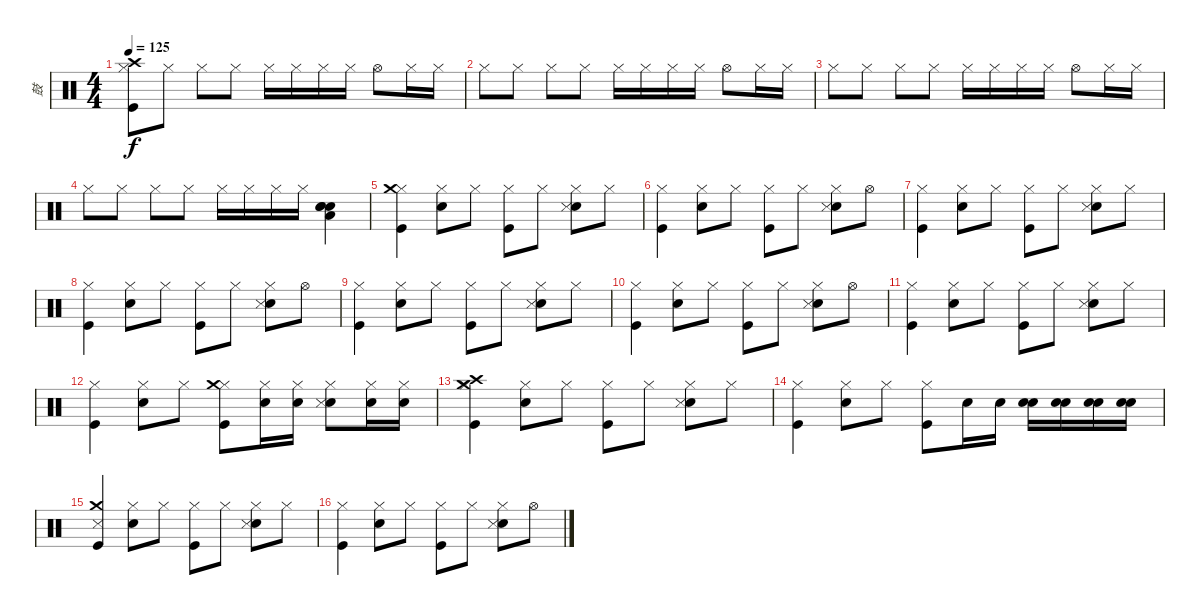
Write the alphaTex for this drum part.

\track ("鼓" "鼓") {instrument percussion}
\staff {score}
\articulation defaults
\ts (4 4)
\tempo 125
\clef neutral
\ks c
("Kick (hit)" "Hi-Hat (closed)" "Crash high (hit)").8{dy f} "Hi-Hat (closed)".8 "Hi-Hat (closed)".8 "Hi-Hat (closed)".8 "Hi-Hat (closed)".16 "Hi-Hat (closed)".16 "Hi-Hat (closed)".16 "Hi-Hat (closed)".16 "Hi-Hat (open)".8 "Hi-Hat (closed)".16 "Hi-Hat (closed)".16 |
"Hi-Hat (closed)".8 "Hi-Hat (closed)".8 "Hi-Hat (closed)".8 "Hi-Hat (closed)".8 "Hi-Hat (closed)".16 "Hi-Hat (closed)".16 "Hi-Hat (closed)".16 "Hi-Hat (closed)".16 "Hi-Hat (open)".8 "Hi-Hat (closed)".16 "Hi-Hat (closed)".16 |
"Hi-Hat (closed)".8 "Hi-Hat (closed)".8 "Hi-Hat (closed)".8 "Hi-Hat (closed)".8 "Hi-Hat (closed)".16 "Hi-Hat (closed)".16 "Hi-Hat (closed)".16 "Hi-Hat (closed)".16 "Hi-Hat (open)".8 "Hi-Hat (closed)".16 "Hi-Hat (closed)".16 |
"Hi-Hat (closed)".8 "Hi-Hat (closed)".8 "Hi-Hat (closed)".8 "Hi-Hat (closed)".8 "Hi-Hat (closed)".16 "Hi-Hat (closed)".16 "Hi-Hat (closed)".16 "Hi-Hat (closed)".16 ("Snare (hit) 2" "Electric Snare (hit)" "Electric Snare (hit)" "Low Floor Tom (hit)").4 |
("Kick (hit)" "Hi-Hat (closed)" "Crash medium (hit)").4 ("Hi-Hat (closed)" "Electric Snare (hit)").8 "Hi-Hat (closed)".8 ("Kick (hit)" "Hi-Hat (closed)").8 "Hi-Hat (closed)".8 ("Hi-Hat (closed)" "Electric Snare (hit)" "Snare (side stick) 3").8 "Hi-Hat (closed)".8 |
("Kick (hit)" "Hi-Hat (closed)").4 ("Hi-Hat (closed)" "Electric Snare (hit)").8 "Hi-Hat (closed)".8 ("Kick (hit)" "Hi-Hat (closed)").8 "Hi-Hat (closed)".8 ("Hi-Hat (closed)" "Electric Snare (hit)" "Snare (side stick) 3").8 "Hi-Hat (open)".8 |
("Kick (hit)" "Hi-Hat (closed)").4 ("Hi-Hat (closed)" "Electric Snare (hit)").8 "Hi-Hat (closed)".8 ("Kick (hit)" "Hi-Hat (closed)").8 "Hi-Hat (closed)".8 ("Hi-Hat (closed)" "Electric Snare (hit)" "Snare (side stick) 3").8 "Hi-Hat (closed)".8 |
("Kick (hit)" "Hi-Hat (closed)").4 ("Hi-Hat (closed)" "Electric Snare (hit)").8 "Hi-Hat (closed)".8 ("Kick (hit)" "Hi-Hat (closed)").8 "Hi-Hat (closed)".8 ("Hi-Hat (closed)" "Electric Snare (hit)" "Snare (side stick) 3").8 "Hi-Hat (open)".8 |
("Kick (hit)" "Hi-Hat (closed)").4 ("Hi-Hat (closed)" "Electric Snare (hit)").8 "Hi-Hat (closed)".8 ("Kick (hit)" "Hi-Hat (closed)").8 "Hi-Hat (closed)".8 ("Hi-Hat (closed)" "Electric Snare (hit)" "Snare (side stick) 3").8 "Hi-Hat (closed)".8 |
("Kick (hit)" "Hi-Hat (closed)").4 ("Hi-Hat (closed)" "Electric Snare (hit)").8 "Hi-Hat (closed)".8 ("Kick (hit)" "Hi-Hat (closed)").8 "Hi-Hat (closed)".8 ("Hi-Hat (closed)" "Electric Snare (hit)" "Snare (side stick) 3").8 "Hi-Hat (open)".8 |
("Kick (hit)" "Hi-Hat (closed)").4 ("Hi-Hat (closed)" "Electric Snare (hit)").8 "Hi-Hat (closed)".8 ("Kick (hit)" "Hi-Hat (closed)").8 "Hi-Hat (closed)".8 ("Hi-Hat (closed)" "Electric Snare (hit)" "Snare (side stick) 3").8 "Hi-Hat (closed)".8 |
("Kick (hit)" "Hi-Hat (closed)").4 ("Hi-Hat (closed)" "Electric Snare (hit)").8 "Hi-Hat (closed)".8 ("Kick (hit)" "Hi-Hat (closed)" "Crash medium (hit)").8 ("Hi-Hat (closed)" "Electric Snare (hit)").16 ("Hi-Hat (closed)" "Electric Snare (hit)").16 ("Hi-Hat (closed)" "Electric Snare (hit)" "Snare (side stick) 3").8 ("Hi-Hat (closed)" "Electric Snare (hit)").16 ("Hi-Hat (closed)" "Electric Snare (hit)").16 |
("Kick (hit)" "Hi-Hat (closed)" "Crash medium (hit)" "Crash high (hit)").4 ("Hi-Hat (closed)" "Electric Snare (hit)").8 "Hi-Hat (closed)".8 ("Kick (hit)" "Hi-Hat (closed)").8 "Hi-Hat (closed)".8 ("Hi-Hat (closed)" "Electric Snare (hit)" "Snare (side stick) 3").8 "Hi-Hat (closed)".8 |
("Kick (hit)" "Hi-Hat (closed)").4 ("Hi-Hat (closed)" "Electric Snare (hit)").8 "Hi-Hat (closed)".8 ("Kick (hit)" "Hi-Hat (closed)").8 "Electric Snare (hit)".16 "Electric Snare (hit)".16 ("Electric Snare (hit)" "Snare (hit) 2").16 ("Electric Snare (hit)" "Snare (hit) 2").16 ("Electric Snare (hit)" "Snare (hit) 2").16 ("Electric Snare (hit)" "Snare (hit) 2").16 |
("Kick (hit)" "Snare (side stick) 3" "Crash medium (hit)").4 ("Hi-Hat (closed)" "Electric Snare (hit)").8 "Hi-Hat (closed)".8 ("Kick (hit)" "Hi-Hat (closed)").8 "Hi-Hat (closed)".8 ("Hi-Hat (closed)" "Electric Snare (hit)" "Snare (side stick) 3").8 "Hi-Hat (closed)".8 |
("Kick (hit)" "Hi-Hat (closed)").4 ("Hi-Hat (closed)" "Electric Snare (hit)").8 "Hi-Hat (closed)".8 ("Kick (hit)" "Hi-Hat (closed)").8 "Hi-Hat (closed)".8 ("Hi-Hat (closed)" "Electric Snare (hit)" "Snare (side stick) 3").8 "Hi-Hat (open)".8
